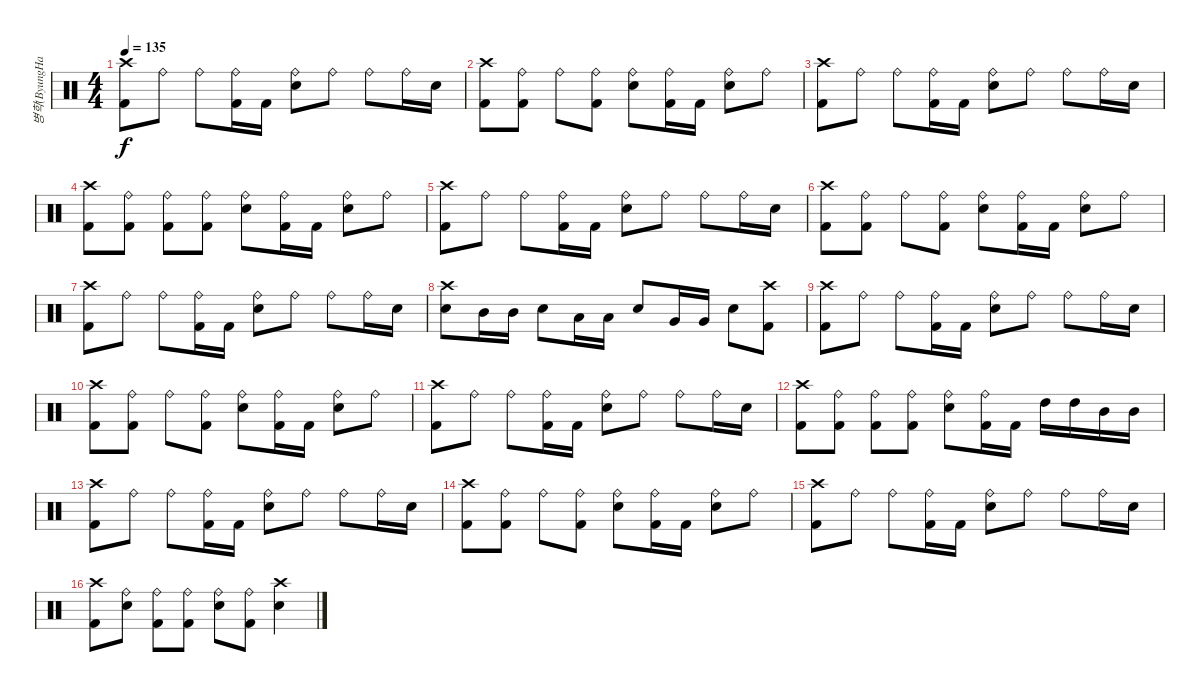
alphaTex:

\track ("병학(ByungHak)" "병학(ByungHa") {instrument percussion}
\staff {score}
\articulation defaults
\ts (4 4)
\tempo 135
\clef neutral
\ks c
("Crash high (hit)" "Kick (hit) 2").8{dy f} "Ride (bell)".8 "Ride (bell)".8 ("Ride (bell)" "Kick (hit) 2").16 "Kick (hit) 2".16 ("Ride (bell)" "Snare (hit) 2").8 "Ride (bell)".8 "Ride (bell)".8 "Ride (bell)".16 "Snare (hit) 2".16 |
("Crash high (hit)" "Kick (hit) 2").8 ("Ride (bell)" "Kick (hit) 2").8 "Ride (bell)".8 ("Ride (bell)" "Kick (hit) 2").8 ("Ride (bell)" "Snare (hit) 2").8 ("Ride (bell)" "Kick (hit) 2").16 "Kick (hit) 2".16 ("Ride (bell)" "Snare (hit) 2").8 "Ride (bell)".8 |
("Crash high (hit)" "Kick (hit) 2").8 "Ride (bell)".8 "Ride (bell)".8 ("Ride (bell)" "Kick (hit) 2").16 "Kick (hit) 2".16 ("Ride (bell)" "Snare (hit) 2").8 "Ride (bell)".8 "Ride (bell)".8 "Ride (bell)".16 "Snare (hit) 2".16 |
("Crash high (hit)" "Kick (hit) 2").8 ("Ride (bell)" "Kick (hit) 2").8 ("Ride (bell)" "Kick (hit) 2").8 ("Ride (bell)" "Kick (hit) 2").8 ("Ride (bell)" "Snare (hit) 2").8 ("Ride (bell)" "Kick (hit) 2").16 "Kick (hit) 2".16 ("Ride (bell)" "Snare (hit) 2").8 "Ride (bell)".8 |
("Crash high (hit)" "Kick (hit) 2").8 "Ride (bell)".8 "Ride (bell)".8 ("Ride (bell)" "Kick (hit) 2").16 "Kick (hit) 2".16 ("Ride (bell)" "Snare (hit) 2").8 "Ride (bell)".8 "Ride (bell)".8 "Ride (bell)".16 "Snare (hit) 2".16 |
("Crash high (hit)" "Kick (hit) 2").8 ("Ride (bell)" "Kick (hit) 2").8 "Ride (bell)".8 ("Ride (bell)" "Kick (hit) 2").8 ("Ride (bell)" "Snare (hit) 2").8 ("Ride (bell)" "Kick (hit) 2").16 "Kick (hit) 2".16 ("Ride (bell)" "Snare (hit) 2").8 "Ride (bell)".8 |
("Crash high (hit)" "Kick (hit) 2").8 "Ride (bell)".8 "Ride (bell)".8 ("Ride (bell)" "Kick (hit) 2").16 "Kick (hit) 2".16 ("Ride (bell)" "Snare (hit) 2").8 "Ride (bell)".8 "Ride (bell)".8 "Ride (bell)".16 "Snare (hit) 2".16 |
("Crash high (hit)" "Snare (hit) 2").8 "Mid Tom (hit)".16 "Mid Tom (hit)".16 "Snare (hit) 2".8 "Low Tom (hit)".16 "Low Tom (hit)".16 "Snare (hit) 2".8 "Very Low Tom (hit)".16 "Very Low Tom (hit)".16 "Snare (hit) 2".8 ("Crash high (hit)" "Kick (hit) 2").8 |
("Crash high (hit)" "Kick (hit) 2").8 "Ride (bell)".8 "Ride (bell)".8 ("Ride (bell)" "Kick (hit) 2").16 "Kick (hit) 2".16 ("Ride (bell)" "Snare (hit) 2").8 "Ride (bell)".8 "Ride (bell)".8 "Ride (bell)".16 "Snare (hit) 2".16 |
("Crash high (hit)" "Kick (hit) 2").8 ("Ride (bell)" "Kick (hit) 2").8 "Ride (bell)".8 ("Ride (bell)" "Kick (hit) 2").8 ("Ride (bell)" "Snare (hit) 2").8 ("Ride (bell)" "Kick (hit) 2").16 "Kick (hit) 2".16 ("Ride (bell)" "Snare (hit) 2").8 "Ride (bell)".8 |
("Crash high (hit)" "Kick (hit) 2").8 "Ride (bell)".8 "Ride (bell)".8 ("Ride (bell)" "Kick (hit) 2").16 "Kick (hit) 2".16 ("Ride (bell)" "Snare (hit) 2").8 "Ride (bell)".8 "Ride (bell)".8 "Ride (bell)".16 "Snare (hit) 2".16 |
("Crash high (hit)" "Kick (hit) 2").8 ("Ride (bell)" "Kick (hit) 2").8 ("Ride (bell)" "Kick (hit) 2").8 ("Ride (bell)" "Kick (hit) 2").8 ("Ride (bell)" "Snare (hit) 2").8 ("Ride (bell)" "Kick (hit) 2").16 "Kick (hit) 2".16 "High Tom (hit)".16 "High Tom (hit)".16 "Mid Tom (hit)".16 "Mid Tom (hit)".16 |
("Crash high (hit)" "Kick (hit) 2").8 "Ride (bell)".8 "Ride (bell)".8 ("Ride (bell)" "Kick (hit) 2").16 "Kick (hit) 2".16 ("Ride (bell)" "Snare (hit) 2").8 "Ride (bell)".8 "Ride (bell)".8 "Ride (bell)".16 "Snare (hit) 2".16 |
("Crash high (hit)" "Kick (hit) 2").8 ("Ride (bell)" "Kick (hit) 2").8 "Ride (bell)".8 ("Ride (bell)" "Kick (hit) 2").8 ("Ride (bell)" "Snare (hit) 2").8 ("Ride (bell)" "Kick (hit) 2").16 "Kick (hit) 2".16 ("Ride (bell)" "Snare (hit) 2").8 "Ride (bell)".8 |
("Crash high (hit)" "Kick (hit) 2").8 "Ride (bell)".8 "Ride (bell)".8 ("Ride (bell)" "Kick (hit) 2").16 "Kick (hit) 2".16 ("Ride (bell)" "Snare (hit) 2").8 "Ride (bell)".8 "Ride (bell)".8 "Ride (bell)".16 "Snare (hit) 2".16 |
("Crash high (hit)" "Kick (hit) 2").8 ("Ride (bell)" "Snare (hit) 2").8 ("Ride (bell)" "Kick (hit) 2").8 ("Ride (bell)" "Kick (hit) 2").8 ("Ride (bell)" "Snare (hit) 2").8 ("Ride (bell)" "Kick (hit) 2").8 ("Crash high (hit)" "Snare (hit) 2").4
